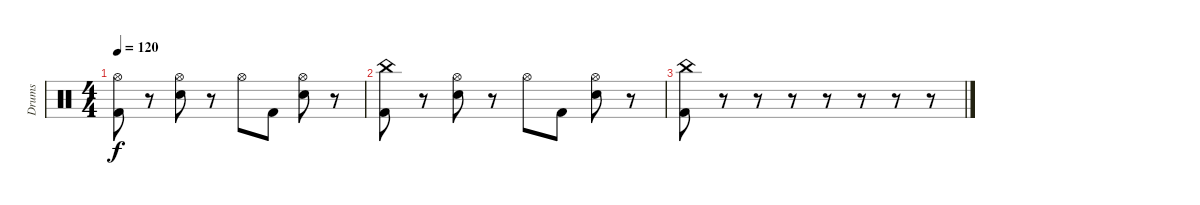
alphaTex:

\track ("Drums" "Drums") {instrument percussion}
\staff {score}
\articulation defaults
\ts (4 4)
\tempo 120
\clef neutral
\ks c
("Hi-Hat (open)" "Kick (hit) 2").8{dy f} r.8 ("Hi-Hat (open)" "Hand Clap (hit)").8 r.8 "Hi-Hat (open)".8 "Kick (hit) 2".8 ("Hi-Hat (open)" "Hand Clap (hit)").8 r.8 |
("China (hit)" "Kick (hit) 2").8 r.8 ("Hi-Hat (open)" "Hand Clap (hit)").8 r.8 "Hi-Hat (open)".8 "Kick (hit) 2".8 ("Hi-Hat (open)" "Hand Clap (hit)").8 r.8 |
("China (hit)" "Kick (hit) 2").8 r.8 r.8 r.8 r.8 r.8 r.8 r.8
